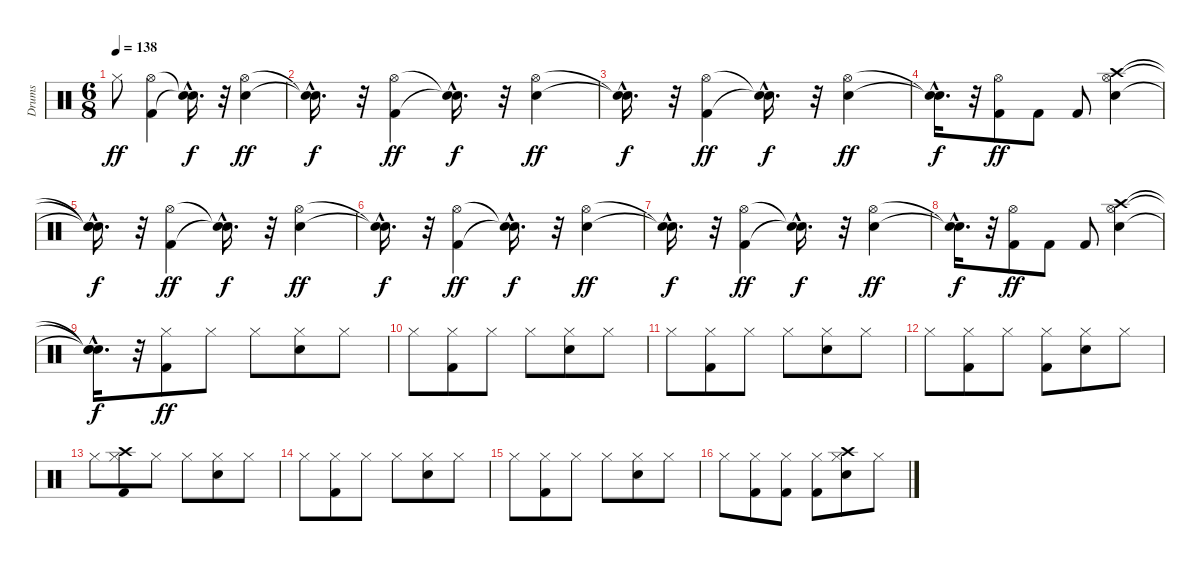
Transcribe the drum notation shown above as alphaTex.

\track ("Drums" "Drums") {instrument percussion}
\staff {score}
\articulation defaults
\ts (6 8)
\tempo 138
\clef neutral
\ks c "Hi-Hat (closed)".8{dy ff}
("Kick (hit) 2" "Hi-Hat (open)").4 ("Snare (hit)"{hac t} "Snare (hit)"{hac t}).16{d dy f} r.32 ("Snare (hit) 2" "Hi-Hat (open)").4{dy ff} |
("Snare (hit)"{hac t} "Snare (hit)"{hac t}).16{d dy f} r.32 ("Kick (hit) 2" "Hi-Hat (open)").4{dy ff} ("Snare (hit)"{hac t} "Snare (hit)"{hac t}).16{d dy f} r.32 ("Snare (hit) 2" "Hi-Hat (open)").4{dy ff} |
("Snare (hit)"{hac t} "Snare (hit)"{hac t}).16{d dy f} r.32 ("Kick (hit) 2" "Hi-Hat (open)").4{dy ff} ("Snare (hit)"{hac t} "Snare (hit)"{hac t}).16{d dy f} r.32 ("Snare (hit) 2" "Hi-Hat (open)").4{dy ff} |
("Snare (hit)"{hac t} "Snare (hit)"{hac t}).16{d dy f} r.32 ("Kick (hit) 2" "Hi-Hat (open)").8{dy ff} "Kick (hit) 2".8 "Kick (hit) 2".8 ("Snare (hit) 2" "Hi-Hat (open)" "Crash high (hit)").4 |
("Snare (hit)"{hac t} "Snare (hit)"{hac t} "Snare (hit)"{hac t}).16{d dy f} r.32 ("Kick (hit) 2" "Hi-Hat (open)").4{dy ff} ("Snare (hit)"{hac t} "Snare (hit)"{hac t}).16{d dy f} r.32 ("Snare (hit) 2" "Hi-Hat (open)").4{dy ff} |
("Snare (hit)"{hac t} "Snare (hit)"{hac t}).16{d dy f} r.32 ("Kick (hit) 2" "Hi-Hat (open)").4{dy ff} ("Snare (hit)"{hac t} "Snare (hit)"{hac t}).16{d dy f} r.32 ("Snare (hit) 2" "Hi-Hat (open)").4{dy ff} |
("Snare (hit)"{hac t} "Snare (hit)"{hac t}).16{d dy f} r.32 ("Kick (hit) 2" "Hi-Hat (open)").4{dy ff} ("Snare (hit)"{hac t} "Snare (hit)"{hac t}).16{d dy f} r.32 ("Snare (hit) 2" "Hi-Hat (open)").4{dy ff} |
("Snare (hit)"{hac t} "Snare (hit)"{hac t}).16{d dy f} r.32 ("Kick (hit) 2" "Hi-Hat (open)").8{dy ff} "Kick (hit) 2".8 "Kick (hit) 2".8 ("Snare (hit) 2" "Hi-Hat (open)" "Crash high (hit)").4 |
("Snare (hit)"{hac t} "Snare (hit)"{hac t} "Snare (hit)"{hac t}).16{d dy f} r.32 ("Kick (hit) 2" "Hi-Hat (closed)").8{dy ff} "Hi-Hat (closed)".8 "Hi-Hat (closed)".8 ("Snare (hit) 2" "Hi-Hat (closed)").8 "Hi-Hat (closed)".8 |
"Hi-Hat (closed)".8 ("Kick (hit) 2" "Hi-Hat (closed)").8 "Hi-Hat (closed)".8 "Hi-Hat (closed)".8 ("Snare (hit) 2" "Hi-Hat (closed)").8 "Hi-Hat (closed)".8 |
"Hi-Hat (closed)".8 ("Kick (hit) 2" "Hi-Hat (closed)").8 "Hi-Hat (closed)".8 "Hi-Hat (closed)".8 ("Snare (hit) 2" "Hi-Hat (closed)").8 "Hi-Hat (closed)".8 |
"Hi-Hat (closed)".8 ("Kick (hit) 2" "Hi-Hat (closed)").8 "Hi-Hat (closed)".8 ("Kick (hit) 2" "Hi-Hat (closed)").8 ("Snare (hit) 2" "Hi-Hat (closed)").8 "Hi-Hat (closed)".8 |
"Hi-Hat (closed)".8 ("Kick (hit) 2" "Hi-Hat (closed)" "Crash high (hit)").8 "Hi-Hat (closed)".8 "Hi-Hat (closed)".8 ("Snare (hit) 2" "Hi-Hat (closed)").8 "Hi-Hat (closed)".8 |
"Hi-Hat (closed)".8 ("Kick (hit) 2" "Hi-Hat (closed)").8 "Hi-Hat (closed)".8 "Hi-Hat (closed)".8 ("Snare (hit) 2" "Hi-Hat (closed)").8 "Hi-Hat (closed)".8 |
"Hi-Hat (closed)".8 ("Kick (hit) 2" "Hi-Hat (closed)").8 "Hi-Hat (closed)".8 "Hi-Hat (closed)".8 ("Snare (hit) 2" "Hi-Hat (closed)").8 "Hi-Hat (closed)".8 |
"Hi-Hat (closed)".8 ("Kick (hit) 2" "Hi-Hat (closed)").8 ("Kick (hit) 2" "Hi-Hat (closed)").8 ("Kick (hit) 2" "Hi-Hat (closed)").8 ("Snare (hit) 2" "Hi-Hat (closed)" "Crash high (hit)").8 "Hi-Hat (closed)".8
